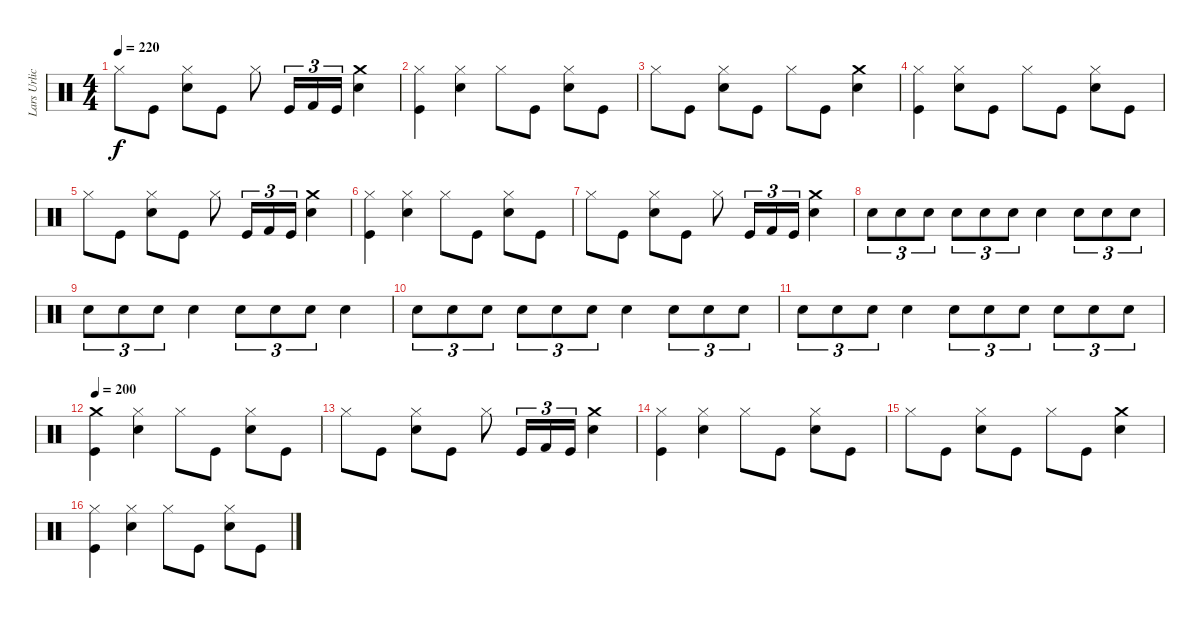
\track ("Lars Urlich" "Lars Urlic") {instrument percussion}
\staff {score}
\articulation defaults
\ts (4 4)
\tempo 220
\clef neutral
\ks c "Hi-Hat (closed)".8{dy f} "Kick (hit)".8
("Snare (hit) 2" "Hi-Hat (closed)").8 "Kick (hit)".8 "Hi-Hat (closed)".8 "Kick (hit)".16{tu (3 2)} "Kick (hit) 2".16{tu (3 2)} "Kick (hit)".16{tu (3 2)} ("Crash medium (hit)" "Snare (hit) 2").4 |
("Hi-Hat (closed)" "Kick (hit)").4 ("Snare (hit) 2" "Hi-Hat (closed)").4 "Hi-Hat (closed)".8 "Kick (hit)".8 ("Snare (hit) 2" "Hi-Hat (closed)").8 "Kick (hit)".8 |
"Hi-Hat (closed)".8 "Kick (hit)".8 ("Snare (hit) 2" "Hi-Hat (closed)").8 "Kick (hit)".8 "Hi-Hat (closed)".8 "Kick (hit)".8 ("Crash medium (hit)" "Snare (hit) 2").4 |
("Kick (hit)" "Hi-Hat (closed)").4 ("Snare (hit) 2" "Hi-Hat (closed)").8 "Kick (hit)".8 "Hi-Hat (closed)".8 "Kick (hit)".8 ("Hi-Hat (closed)" "Snare (hit) 2").8 "Kick (hit)".8 |
"Hi-Hat (closed)".8 "Kick (hit)".8 ("Snare (hit) 2" "Hi-Hat (closed)").8 "Kick (hit)".8 "Hi-Hat (closed)".8 "Kick (hit)".16{tu (3 2)} "Kick (hit) 2".16{tu (3 2)} "Kick (hit)".16{tu (3 2)} ("Crash medium (hit)" "Snare (hit) 2").4 |
("Hi-Hat (closed)" "Kick (hit)").4 ("Snare (hit) 2" "Hi-Hat (closed)").4 "Hi-Hat (closed)".8 "Kick (hit)".8 ("Snare (hit) 2" "Hi-Hat (closed)").8 "Kick (hit)".8 |
"Hi-Hat (closed)".8 "Kick (hit)".8 ("Snare (hit) 2" "Hi-Hat (closed)").8 "Kick (hit)".8 "Hi-Hat (closed)".8 "Kick (hit)".16{tu (3 2)} "Kick (hit) 2".16{tu (3 2)} "Kick (hit)".16{tu (3 2)} ("Crash medium (hit)" "Snare (hit) 2").4 |
"Snare (hit) 2".8{tu (3 2)} "Snare (hit) 2".8{tu (3 2)} "Snare (hit) 2".8{tu (3 2)} "Snare (hit) 2".8{tu (3 2)} "Snare (hit) 2".8{tu (3 2)} "Snare (hit) 2".8{tu (3 2)} "Snare (hit) 2".4 "Snare (hit) 2".8{tu (3 2)} "Snare (hit) 2".8{tu (3 2)} "Snare (hit) 2".8{tu (3 2)} |
"Snare (hit) 2".8{tu (3 2)} "Snare (hit) 2".8{tu (3 2)} "Snare (hit) 2".8{tu (3 2)} "Snare (hit) 2".4 "Snare (hit) 2".8{tu (3 2)} "Snare (hit) 2".8{tu (3 2)} "Snare (hit) 2".8{tu (3 2)} "Snare (hit) 2".4 |
"Snare (hit) 2".8{tu (3 2)} "Snare (hit) 2".8{tu (3 2)} "Snare (hit) 2".8{tu (3 2)} "Snare (hit) 2".8{tu (3 2)} "Snare (hit) 2".8{tu (3 2)} "Snare (hit) 2".8{tu (3 2)} "Snare (hit) 2".4 "Snare (hit) 2".8{tu (3 2)} "Snare (hit) 2".8{tu (3 2)} "Snare (hit) 2".8{tu (3 2)} |
"Snare (hit) 2".8{tu (3 2)} "Snare (hit) 2".8{tu (3 2)} "Snare (hit) 2".8{tu (3 2)} "Snare (hit) 2".4 "Snare (hit) 2".8{tu (3 2)} "Snare (hit) 2".8{tu (3 2)} "Snare (hit) 2".8{tu (3 2)} "Snare (hit) 2".8{tu (3 2)} "Snare (hit) 2".8{tu (3 2)} "Snare (hit) 2".8{tu (3 2)} |
\tempo 200
("Crash medium (hit)" "Kick (hit)").4 ("Hi-Hat (closed)" "Snare (hit) 2").4 "Hi-Hat (closed)".8 "Kick (hit)".8 ("Snare (hit) 2" "Hi-Hat (closed)").8 "Kick (hit)".8 |
"Hi-Hat (closed)".8 "Kick (hit)".8 ("Snare (hit) 2" "Hi-Hat (closed)").8 "Kick (hit)".8 "Hi-Hat (closed)".8 "Kick (hit)".16{tu (3 2)} "Kick (hit) 2".16{tu (3 2)} "Kick (hit)".16{tu (3 2)} ("Crash medium (hit)" "Snare (hit) 2").4 |
("Kick (hit)" "Hi-Hat (closed)").4 ("Hi-Hat (closed)" "Snare (hit) 2").4 "Hi-Hat (closed)".8 "Kick (hit)".8 ("Snare (hit) 2" "Hi-Hat (closed)").8 "Kick (hit)".8 |
"Hi-Hat (closed)".8 "Kick (hit)".8 ("Snare (hit) 2" "Hi-Hat (closed)").8 "Kick (hit)".8 "Hi-Hat (closed)".8 "Kick (hit)".8 ("Crash medium (hit)" "Snare (hit) 2").4 |
("Hi-Hat (closed)" "Kick (hit)").4 ("Snare (hit) 2" "Hi-Hat (closed)").4 "Hi-Hat (closed)".8 "Kick (hit)".8 ("Snare (hit) 2" "Hi-Hat (closed)").8 "Kick (hit)".8
